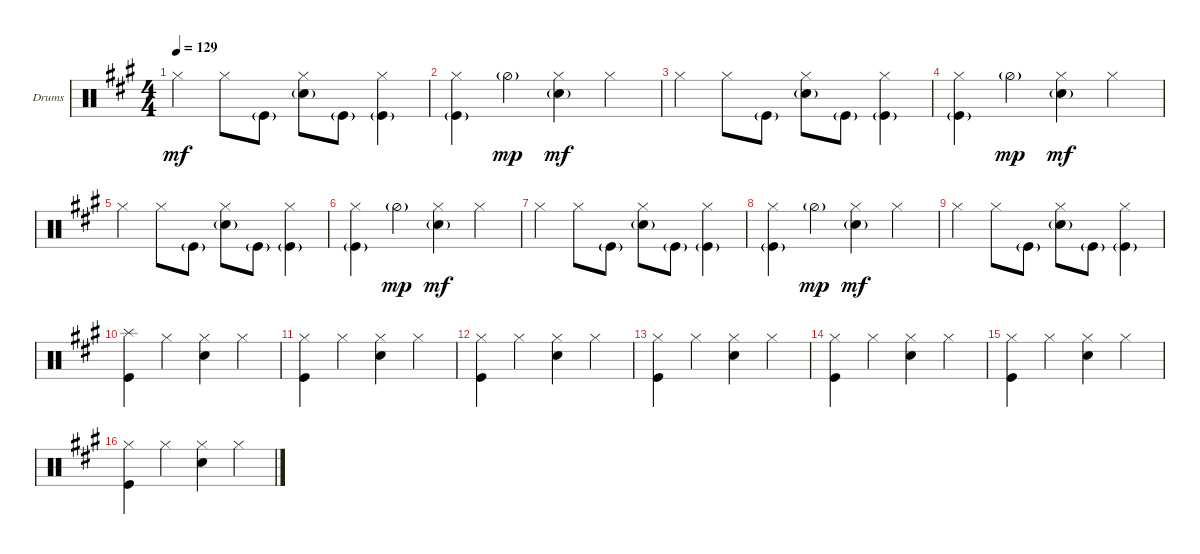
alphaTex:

\defaultSystemsLayout 4
\bracketExtendMode groupsimilarinstruments
\firstSystemTrackNameOrientation horizontal
\otherSystemsTrackNameOrientation horizontal
\track ("Drumkit" "Drums") {instrument percussion}
\staff {score}
\articulation defaults
\ts (4 4)
\tempo 129
\clef neutral
\ks f#minor "Hi-Hat (closed)".4{dy mf} "Hi-Hat (closed)".8 "Kick (hit)"{g}.8
("Snare (hit) 2"{g} "Hi-Hat (closed)").8 "Kick (hit)"{g}.8 ("Hi-Hat (closed)" "Kick (hit)"{g}).4 |
("Kick (hit)"{g} "Hi-Hat (closed)").4 "Hi-Hat (half)"{g}.4{dy mp} ("Snare (hit) 2"{g} "Hi-Hat (closed)").4{dy mf} "Hi-Hat (closed)".4 |
"Hi-Hat (closed)".4 "Hi-Hat (closed)".8 "Kick (hit)"{g}.8 ("Snare (hit) 2"{g} "Hi-Hat (closed)").8 "Kick (hit)"{g}.8 ("Hi-Hat (closed)" "Kick (hit)"{g}).4 |
("Kick (hit)"{g} "Hi-Hat (closed)").4 "Hi-Hat (half)"{g}.4{dy mp} ("Snare (hit) 2"{g} "Hi-Hat (closed)").4{dy mf} "Hi-Hat (closed)".4 |
"Hi-Hat (closed)".4 "Hi-Hat (closed)".8 "Kick (hit)"{g}.8 ("Snare (hit) 2"{g} "Hi-Hat (closed)").8 "Kick (hit)"{g}.8 ("Hi-Hat (closed)" "Kick (hit)"{g}).4 |
("Kick (hit)"{g} "Hi-Hat (closed)").4 "Hi-Hat (half)"{g}.4{dy mp} ("Snare (hit) 2"{g} "Hi-Hat (closed)").4{dy mf} "Hi-Hat (closed)".4 |
"Hi-Hat (closed)".4 "Hi-Hat (closed)".8 "Kick (hit)"{g}.8 ("Snare (hit) 2"{g} "Hi-Hat (closed)").8 "Kick (hit)"{g}.8 ("Hi-Hat (closed)" "Kick (hit)"{g}).4 |
("Kick (hit)"{g} "Hi-Hat (closed)").4 "Hi-Hat (half)"{g}.4{dy mp} ("Snare (hit) 2"{g} "Hi-Hat (closed)").4{dy mf} "Hi-Hat (closed)".4 |
"Hi-Hat (closed)".4 "Hi-Hat (closed)".8 "Kick (hit)"{g}.8 ("Snare (hit) 2"{g} "Hi-Hat (closed)").8 "Kick (hit)"{g}.8 ("Hi-Hat (closed)" "Kick (hit)"{g}).4 |
("Kick (hit)" "Splash (hit)").4 "Hi-Hat (closed)".4 ("Snare (hit) 2" "Hi-Hat (closed)").4 "Hi-Hat (closed)".4 |
("Kick (hit)" "Hi-Hat (closed)").4 "Hi-Hat (closed)".4 ("Snare (hit) 2" "Hi-Hat (closed)").4 "Hi-Hat (closed)".4 |
("Kick (hit)" "Hi-Hat (closed)").4 "Hi-Hat (closed)".4 ("Snare (hit) 2" "Hi-Hat (closed)").4 "Hi-Hat (closed)".4 |
("Kick (hit)" "Hi-Hat (closed)").4 "Hi-Hat (closed)".4 ("Snare (hit) 2" "Hi-Hat (closed)").4 "Hi-Hat (closed)".4 |
("Kick (hit)" "Hi-Hat (closed)").4 "Hi-Hat (closed)".4 ("Snare (hit) 2" "Hi-Hat (closed)").4 "Hi-Hat (closed)".4 |
("Kick (hit)" "Hi-Hat (closed)").4 "Hi-Hat (closed)".4 ("Snare (hit) 2" "Hi-Hat (closed)").4 "Hi-Hat (closed)".4 |
("Kick (hit)" "Hi-Hat (closed)").4 "Hi-Hat (closed)".4 ("Snare (hit) 2" "Hi-Hat (closed)").4 "Hi-Hat (closed)".4
